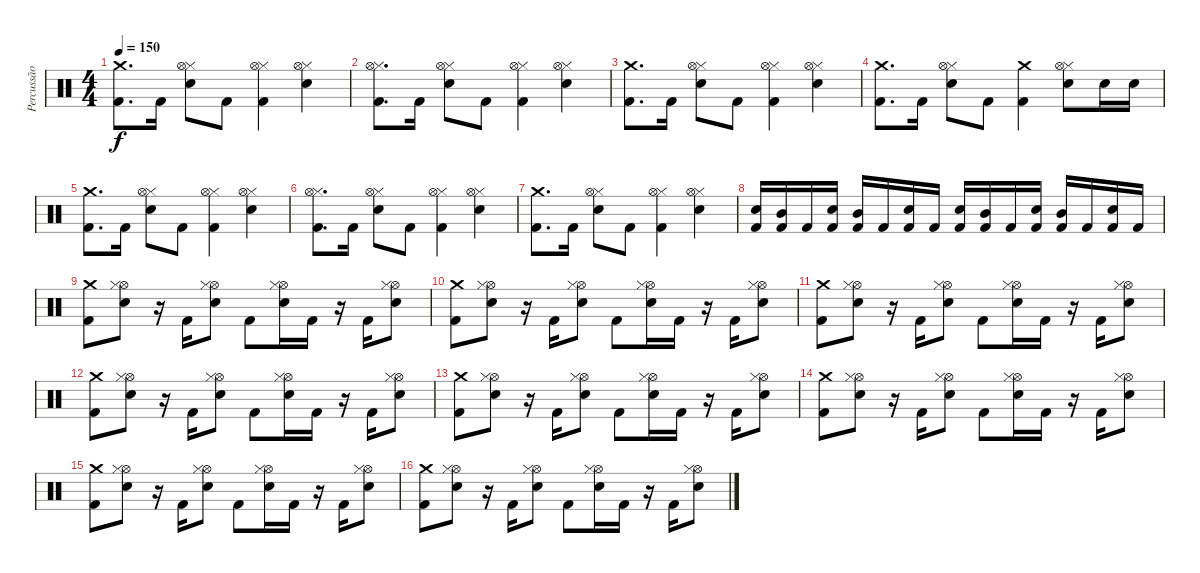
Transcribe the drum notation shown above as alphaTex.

\track ("Percussão" "Percussão") {instrument percussion}
\staff {score}
\articulation defaults
\ts (4 4)
\tempo 150
\clef neutral
\ks c
("Crash medium (hit)" "Kick (hit) 2").8{d dy f} "Kick (hit) 2".16 ("Hi-Hat (closed)" "Hi-Hat (open)" "Snare (hit) 2").8 "Kick (hit) 2".8 ("Hi-Hat (closed)" "Hi-Hat (open)" "Kick (hit) 2").4 ("Hi-Hat (closed)" "Hi-Hat (open)" "Snare (hit) 2").4 |
("Hi-Hat (closed)" "Hi-Hat (open)" "Kick (hit) 2").8{d} "Kick (hit) 2".16 ("Hi-Hat (closed)" "Hi-Hat (open)" "Snare (hit) 2").8 "Kick (hit) 2".8 ("Hi-Hat (closed)" "Hi-Hat (open)" "Kick (hit) 2").4 ("Hi-Hat (closed)" "Hi-Hat (open)" "Snare (hit) 2").4 |
("Crash medium (hit)" "Kick (hit) 2").8{d} "Kick (hit) 2".16 ("Hi-Hat (closed)" "Hi-Hat (open)" "Snare (hit) 2").8 "Kick (hit) 2".8 ("Hi-Hat (closed)" "Hi-Hat (open)" "Kick (hit) 2").4 ("Hi-Hat (closed)" "Hi-Hat (open)" "Snare (hit) 2").4 |
("Crash medium (hit)" "Kick (hit) 2").8{d} "Kick (hit) 2".16 ("Hi-Hat (closed)" "Hi-Hat (open)" "Snare (hit) 2").8 "Kick (hit) 2".8 ("Crash medium (hit)" "Kick (hit) 2").4 ("Hi-Hat (closed)" "Hi-Hat (open)" "Snare (hit) 2").8 "Snare (hit) 2".16 "Snare (hit) 2".16 |
("Crash medium (hit)" "Kick (hit) 2").8{d} "Kick (hit) 2".16 ("Hi-Hat (closed)" "Hi-Hat (open)" "Snare (hit) 2").8 "Kick (hit) 2".8 ("Hi-Hat (closed)" "Hi-Hat (open)" "Kick (hit) 2").4 ("Hi-Hat (closed)" "Hi-Hat (open)" "Snare (hit) 2").4 |
("Hi-Hat (closed)" "Hi-Hat (open)" "Kick (hit) 2").8{d} "Kick (hit) 2".16 ("Hi-Hat (closed)" "Hi-Hat (open)" "Snare (hit) 2").8 "Kick (hit) 2".8 ("Hi-Hat (closed)" "Hi-Hat (open)" "Kick (hit) 2").4 ("Hi-Hat (closed)" "Hi-Hat (open)" "Snare (hit) 2").4 |
("Crash medium (hit)" "Kick (hit) 2").8{d} "Kick (hit) 2".16 ("Hi-Hat (closed)" "Hi-Hat (open)" "Snare (hit) 2").8 "Kick (hit) 2".8 ("Hi-Hat (closed)" "Hi-Hat (open)" "Kick (hit) 2").4 ("Hi-Hat (closed)" "Hi-Hat (open)" "Snare (hit) 2").4 |
("Snare (hit) 2" "Kick (hit) 2").16 ("Mid Tom (hit)" "Kick (hit) 2").16 "Kick (hit) 2".16 ("Snare (hit) 2" "Kick (hit) 2").16 ("Mid Tom (hit)" "Kick (hit) 2").16 "Kick (hit) 2".16 ("Snare (hit) 2" "Kick (hit) 2").16 "Kick (hit) 2".16 ("Snare (hit) 2" "Kick (hit) 2").16 ("Mid Tom (hit)" "Kick (hit) 2").16 "Kick (hit) 2".16 ("Snare (hit) 2" "Kick (hit) 2").16 ("Mid Tom (hit)" "Kick (hit) 2").16 "Kick (hit) 2".16 ("Snare (hit) 2" "Kick (hit) 2").16 "Kick (hit) 2".16 |
("Crash medium (hit)" "Kick (hit) 2").8 ("Hi-Hat (open)" "Hi-Hat (closed)" "Snare (hit) 2").8 r.16 "Kick (hit) 2".16 ("Hi-Hat (open)" "Hi-Hat (closed)" "Snare (hit) 2").8 "Kick (hit) 2".8 ("Hi-Hat (open)" "Hi-Hat (closed)" "Snare (hit) 2").16 "Kick (hit) 2".16 r.16 "Kick (hit) 2".16 ("Hi-Hat (open)" "Hi-Hat (closed)" "Snare (hit) 2").8 |
("Crash medium (hit)" "Kick (hit) 2").8 ("Hi-Hat (open)" "Hi-Hat (closed)" "Snare (hit) 2").8 r.16 "Kick (hit) 2".16 ("Hi-Hat (open)" "Hi-Hat (closed)" "Snare (hit) 2").8 "Kick (hit) 2".8 ("Hi-Hat (open)" "Hi-Hat (closed)" "Snare (hit) 2").16 "Kick (hit) 2".16 r.16 "Kick (hit) 2".16 ("Hi-Hat (open)" "Hi-Hat (closed)" "Snare (hit) 2").8 |
("Crash medium (hit)" "Kick (hit) 2").8 ("Hi-Hat (open)" "Hi-Hat (closed)" "Snare (hit) 2").8 r.16 "Kick (hit) 2".16 ("Hi-Hat (open)" "Hi-Hat (closed)" "Snare (hit) 2").8 "Kick (hit) 2".8 ("Hi-Hat (open)" "Hi-Hat (closed)" "Snare (hit) 2").16 "Kick (hit) 2".16 r.16 "Kick (hit) 2".16 ("Hi-Hat (open)" "Hi-Hat (closed)" "Snare (hit) 2").8 |
("Crash medium (hit)" "Kick (hit) 2").8 ("Hi-Hat (open)" "Hi-Hat (closed)" "Snare (hit) 2").8 r.16 "Kick (hit) 2".16 ("Hi-Hat (open)" "Hi-Hat (closed)" "Snare (hit) 2").8 "Kick (hit) 2".8 ("Hi-Hat (open)" "Hi-Hat (closed)" "Snare (hit) 2").16 "Kick (hit) 2".16 r.16 "Kick (hit) 2".16 ("Hi-Hat (open)" "Hi-Hat (closed)" "Snare (hit) 2").8 |
("Crash medium (hit)" "Kick (hit) 2").8 ("Hi-Hat (open)" "Hi-Hat (closed)" "Snare (hit) 2").8 r.16 "Kick (hit) 2".16 ("Hi-Hat (open)" "Hi-Hat (closed)" "Snare (hit) 2").8 "Kick (hit) 2".8 ("Hi-Hat (open)" "Hi-Hat (closed)" "Snare (hit) 2").16 "Kick (hit) 2".16 r.16 "Kick (hit) 2".16 ("Hi-Hat (open)" "Hi-Hat (closed)" "Snare (hit) 2").8 |
("Crash medium (hit)" "Kick (hit) 2").8 ("Hi-Hat (open)" "Hi-Hat (closed)" "Snare (hit) 2").8 r.16 "Kick (hit) 2".16 ("Hi-Hat (open)" "Hi-Hat (closed)" "Snare (hit) 2").8 "Kick (hit) 2".8 ("Hi-Hat (open)" "Hi-Hat (closed)" "Snare (hit) 2").16 "Kick (hit) 2".16 r.16 "Kick (hit) 2".16 ("Hi-Hat (open)" "Hi-Hat (closed)" "Snare (hit) 2").8 |
("Crash medium (hit)" "Kick (hit) 2").8 ("Hi-Hat (open)" "Hi-Hat (closed)" "Snare (hit) 2").8 r.16 "Kick (hit) 2".16 ("Hi-Hat (open)" "Hi-Hat (closed)" "Snare (hit) 2").8 "Kick (hit) 2".8 ("Hi-Hat (open)" "Hi-Hat (closed)" "Snare (hit) 2").16 "Kick (hit) 2".16 r.16 "Kick (hit) 2".16 ("Hi-Hat (open)" "Hi-Hat (closed)" "Snare (hit) 2").8 |
("Crash medium (hit)" "Kick (hit) 2").8 ("Hi-Hat (open)" "Hi-Hat (closed)" "Snare (hit) 2").8 r.16 "Kick (hit) 2".16 ("Hi-Hat (open)" "Hi-Hat (closed)" "Snare (hit) 2").8 "Kick (hit) 2".8 ("Hi-Hat (open)" "Hi-Hat (closed)" "Snare (hit) 2").16 "Kick (hit) 2".16 r.16 "Kick (hit) 2".16 ("Hi-Hat (open)" "Hi-Hat (closed)" "Snare (hit) 2").8
